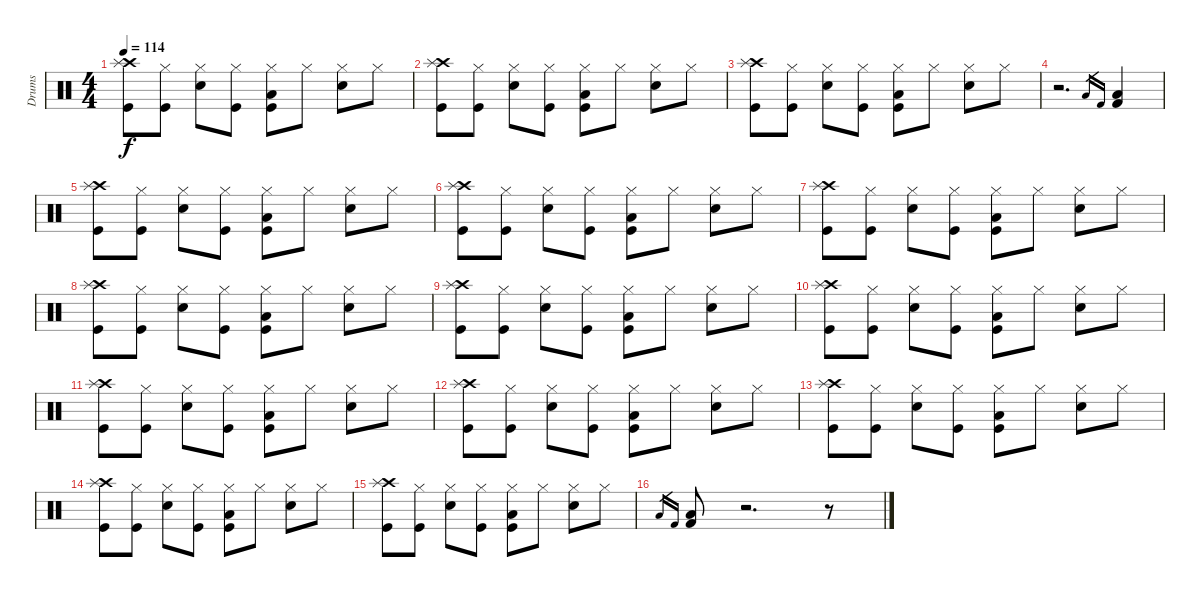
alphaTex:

\track ("Drums" "Drums") {instrument percussion}
\staff {score}
\articulation defaults
\ts (4 4)
\tempo 114
\clef neutral
\ks c
("Crash high (hit)" "Splash (hit)" "Kick (hit)").8{dy f} ("Hi-Hat (closed)" "Kick (hit)").8 ("Hi-Hat (closed)" "Snare (hit) 2").8 ("Hi-Hat (closed)" "Kick (hit)").8 ("Hi-Hat (closed)" "Low Floor Tom (hit)" "Kick (hit)").8 "Hi-Hat (closed)".8 ("Hi-Hat (closed)" "Snare (hit) 2").8 "Hi-Hat (closed)".8 |
("Crash high (hit)" "Splash (hit)" "Kick (hit)").8 ("Hi-Hat (closed)" "Kick (hit)").8 ("Hi-Hat (closed)" "Snare (hit) 2").8 ("Hi-Hat (closed)" "Kick (hit)").8 ("Hi-Hat (closed)" "Low Floor Tom (hit)" "Kick (hit)").8 "Hi-Hat (closed)".8 ("Hi-Hat (closed)" "Snare (hit) 2").8 "Hi-Hat (closed)".8 |
("Crash high (hit)" "Splash (hit)" "Kick (hit)").8 ("Hi-Hat (closed)" "Kick (hit)").8 ("Hi-Hat (closed)" "Snare (hit) 2").8 ("Hi-Hat (closed)" "Kick (hit)").8 ("Hi-Hat (closed)" "Low Floor Tom (hit)" "Kick (hit)").8 "Hi-Hat (closed)".8 ("Hi-Hat (closed)" "Snare (hit) 2").8 "Hi-Hat (closed)".8 |
r.2{d} "Low Floor Tom (hit)".16{gr} "Kick (hit) 2".16{gr} ("Low Floor Tom (hit)" "Kick (hit) 2").4 |
("Crash high (hit)" "Splash (hit)" "Kick (hit)").8 ("Hi-Hat (closed)" "Kick (hit)").8 ("Hi-Hat (closed)" "Snare (hit) 2").8 ("Hi-Hat (closed)" "Kick (hit)").8 ("Hi-Hat (closed)" "Low Floor Tom (hit)" "Kick (hit)").8 "Hi-Hat (closed)".8 ("Hi-Hat (closed)" "Snare (hit) 2").8 "Hi-Hat (closed)".8 |
("Crash high (hit)" "Splash (hit)" "Kick (hit)").8 ("Hi-Hat (closed)" "Kick (hit)").8 ("Hi-Hat (closed)" "Snare (hit) 2").8 ("Hi-Hat (closed)" "Kick (hit)").8 ("Hi-Hat (closed)" "Low Floor Tom (hit)" "Kick (hit)").8 "Hi-Hat (closed)".8 ("Hi-Hat (closed)" "Snare (hit) 2").8 "Hi-Hat (closed)".8 |
("Crash high (hit)" "Splash (hit)" "Kick (hit)").8 ("Hi-Hat (closed)" "Kick (hit)").8 ("Hi-Hat (closed)" "Snare (hit) 2").8 ("Hi-Hat (closed)" "Kick (hit)").8 ("Hi-Hat (closed)" "Low Floor Tom (hit)" "Kick (hit)").8 "Hi-Hat (closed)".8 ("Hi-Hat (closed)" "Snare (hit) 2").8 "Hi-Hat (closed)".8 |
("Crash high (hit)" "Splash (hit)" "Kick (hit)").8 ("Hi-Hat (closed)" "Kick (hit)").8 ("Hi-Hat (closed)" "Snare (hit) 2").8 ("Hi-Hat (closed)" "Kick (hit)").8 ("Hi-Hat (closed)" "Low Floor Tom (hit)" "Kick (hit)").8 "Hi-Hat (closed)".8 ("Hi-Hat (closed)" "Snare (hit) 2").8 "Hi-Hat (closed)".8 |
("Crash high (hit)" "Splash (hit)" "Kick (hit)").8 ("Hi-Hat (closed)" "Kick (hit)").8 ("Hi-Hat (closed)" "Snare (hit) 2").8 ("Hi-Hat (closed)" "Kick (hit)").8 ("Hi-Hat (closed)" "Low Floor Tom (hit)" "Kick (hit)").8 "Hi-Hat (closed)".8 ("Hi-Hat (closed)" "Snare (hit) 2").8 "Hi-Hat (closed)".8 |
("Crash high (hit)" "Splash (hit)" "Kick (hit)").8 ("Hi-Hat (closed)" "Kick (hit)").8 ("Hi-Hat (closed)" "Snare (hit) 2").8 ("Hi-Hat (closed)" "Kick (hit)").8 ("Hi-Hat (closed)" "Low Floor Tom (hit)" "Kick (hit)").8 "Hi-Hat (closed)".8 ("Hi-Hat (closed)" "Snare (hit) 2").8 "Hi-Hat (closed)".8 |
("Crash high (hit)" "Splash (hit)" "Kick (hit)").8 ("Hi-Hat (closed)" "Kick (hit)").8 ("Hi-Hat (closed)" "Snare (hit) 2").8 ("Hi-Hat (closed)" "Kick (hit)").8 ("Hi-Hat (closed)" "Low Floor Tom (hit)" "Kick (hit)").8 "Hi-Hat (closed)".8 ("Hi-Hat (closed)" "Snare (hit) 2").8 "Hi-Hat (closed)".8 |
("Crash high (hit)" "Splash (hit)" "Kick (hit)").8 ("Hi-Hat (closed)" "Kick (hit)").8 ("Hi-Hat (closed)" "Snare (hit) 2").8 ("Hi-Hat (closed)" "Kick (hit)").8 ("Hi-Hat (closed)" "Low Floor Tom (hit)" "Kick (hit)").8 "Hi-Hat (closed)".8 ("Hi-Hat (closed)" "Snare (hit) 2").8 "Hi-Hat (closed)".8 |
("Crash high (hit)" "Splash (hit)" "Kick (hit)").8 ("Hi-Hat (closed)" "Kick (hit)").8 ("Hi-Hat (closed)" "Snare (hit) 2").8 ("Hi-Hat (closed)" "Kick (hit)").8 ("Hi-Hat (closed)" "Low Floor Tom (hit)" "Kick (hit)").8 "Hi-Hat (closed)".8 ("Hi-Hat (closed)" "Snare (hit) 2").8 "Hi-Hat (closed)".8 |
("Crash high (hit)" "Splash (hit)" "Kick (hit)").8 ("Hi-Hat (closed)" "Kick (hit)").8 ("Hi-Hat (closed)" "Snare (hit) 2").8 ("Hi-Hat (closed)" "Kick (hit)").8 ("Hi-Hat (closed)" "Low Floor Tom (hit)" "Kick (hit)").8 "Hi-Hat (closed)".8 ("Hi-Hat (closed)" "Snare (hit) 2").8 "Hi-Hat (closed)".8 |
("Crash high (hit)" "Splash (hit)" "Kick (hit)").8 ("Hi-Hat (closed)" "Kick (hit)").8 ("Hi-Hat (closed)" "Snare (hit) 2").8 ("Hi-Hat (closed)" "Kick (hit)").8 ("Hi-Hat (closed)" "Low Floor Tom (hit)" "Kick (hit)").8 "Hi-Hat (closed)".8 ("Hi-Hat (closed)" "Snare (hit) 2").8 "Hi-Hat (closed)".8 |
"Low Floor Tom (hit)".16{gr} "Kick (hit) 2".16{gr} ("Low Floor Tom (hit)" "Kick (hit) 2").8 r.2{d} r.8
